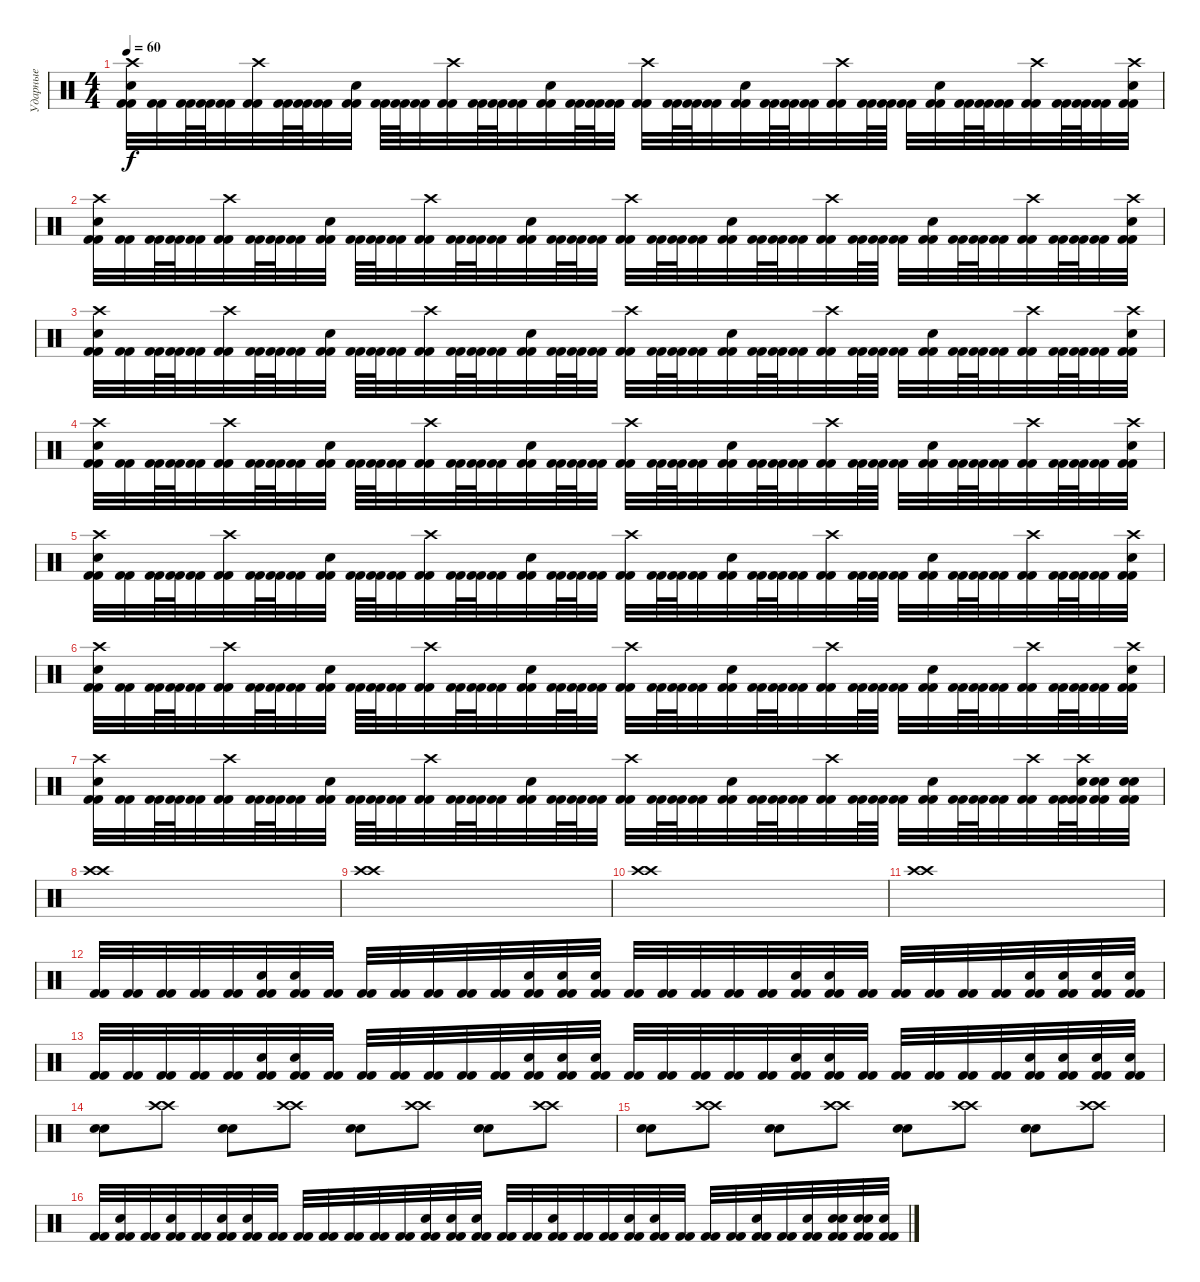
\track ("Ударные" "Ударные") {instrument percussion}
\staff {score}
\articulation defaults
\ts (4 4)
\tempo 60
\clef neutral
\ks c
("Kick (hit) 2" "Kick (hit) 2" "Electric Snare (hit)" "Crash high (hit)").32{dy f} ("Kick (hit) 2" "Kick (hit) 2").32 ("Kick (hit) 2" "Kick (hit) 2").64 ("Kick (hit) 2" "Kick (hit) 2").64 ("Kick (hit) 2" "Kick (hit) 2").32 ("Kick (hit) 2" "Kick (hit) 2" "Crash high (hit)").32 ("Kick (hit) 2" "Kick (hit) 2").64 ("Kick (hit) 2" "Kick (hit) 2").64 ("Kick (hit) 2" "Kick (hit) 2").32 ("Kick (hit) 2" "Kick (hit) 2" "Electric Snare (hit)").32 ("Kick (hit) 2" "Kick (hit) 2").64 ("Kick (hit) 2" "Kick (hit) 2").64 ("Kick (hit) 2" "Kick (hit) 2").32 ("Kick (hit) 2" "Kick (hit) 2" "Crash high (hit)").32 ("Kick (hit) 2" "Kick (hit) 2").64 ("Kick (hit) 2" "Kick (hit) 2").64 ("Kick (hit) 2" "Kick (hit) 2").32 ("Kick (hit) 2" "Kick (hit) 2" "Electric Snare (hit)").32 ("Kick (hit) 2" "Kick (hit) 2").64 ("Kick (hit) 2" "Kick (hit) 2").64 ("Kick (hit) 2" "Kick (hit) 2").32 ("Kick (hit) 2" "Kick (hit) 2" "Crash high (hit)").32 ("Kick (hit) 2" "Kick (hit) 2").64 ("Kick (hit) 2" "Kick (hit) 2").64 ("Kick (hit) 2" "Kick (hit) 2").32 ("Kick (hit) 2" "Kick (hit) 2" "Electric Snare (hit)").32 ("Kick (hit) 2" "Kick (hit) 2").64 ("Kick (hit) 2" "Kick (hit) 2").64 ("Kick (hit) 2" "Kick (hit) 2").32 ("Kick (hit) 2" "Kick (hit) 2" "Crash high (hit)").32 ("Kick (hit) 2" "Kick (hit) 2").64 ("Kick (hit) 2" "Kick (hit) 2").64 ("Kick (hit) 2" "Kick (hit) 2").32 ("Kick (hit) 2" "Kick (hit) 2" "Electric Snare (hit)").32 ("Kick (hit) 2" "Kick (hit) 2").64 ("Kick (hit) 2" "Kick (hit) 2").64 ("Kick (hit) 2" "Kick (hit) 2").32 ("Kick (hit) 2" "Kick (hit) 2" "Crash high (hit)").32 ("Kick (hit) 2" "Kick (hit) 2").64 ("Kick (hit) 2" "Kick (hit) 2").64 ("Kick (hit) 2" "Kick (hit) 2").32 ("Kick (hit) 2" "Kick (hit) 2" "Electric Snare (hit)" "Crash high (hit)").32 |
("Kick (hit) 2" "Kick (hit) 2" "Electric Snare (hit)" "Crash high (hit)").32 ("Kick (hit) 2" "Kick (hit) 2").32 ("Kick (hit) 2" "Kick (hit) 2").64 ("Kick (hit) 2" "Kick (hit) 2").64 ("Kick (hit) 2" "Kick (hit) 2").32 ("Kick (hit) 2" "Kick (hit) 2" "Crash high (hit)").32 ("Kick (hit) 2" "Kick (hit) 2").64 ("Kick (hit) 2" "Kick (hit) 2").64 ("Kick (hit) 2" "Kick (hit) 2").32 ("Kick (hit) 2" "Kick (hit) 2" "Electric Snare (hit)").32 ("Kick (hit) 2" "Kick (hit) 2").64 ("Kick (hit) 2" "Kick (hit) 2").64 ("Kick (hit) 2" "Kick (hit) 2").32 ("Kick (hit) 2" "Kick (hit) 2" "Crash high (hit)").32 ("Kick (hit) 2" "Kick (hit) 2").64 ("Kick (hit) 2" "Kick (hit) 2").64 ("Kick (hit) 2" "Kick (hit) 2").32 ("Kick (hit) 2" "Kick (hit) 2" "Electric Snare (hit)").32 ("Kick (hit) 2" "Kick (hit) 2").64 ("Kick (hit) 2" "Kick (hit) 2").64 ("Kick (hit) 2" "Kick (hit) 2").32 ("Kick (hit) 2" "Kick (hit) 2" "Crash high (hit)").32 ("Kick (hit) 2" "Kick (hit) 2").64 ("Kick (hit) 2" "Kick (hit) 2").64 ("Kick (hit) 2" "Kick (hit) 2").32 ("Kick (hit) 2" "Kick (hit) 2" "Electric Snare (hit)").32 ("Kick (hit) 2" "Kick (hit) 2").64 ("Kick (hit) 2" "Kick (hit) 2").64 ("Kick (hit) 2" "Kick (hit) 2").32 ("Kick (hit) 2" "Kick (hit) 2" "Crash high (hit)").32 ("Kick (hit) 2" "Kick (hit) 2").64 ("Kick (hit) 2" "Kick (hit) 2").64 ("Kick (hit) 2" "Kick (hit) 2").32 ("Kick (hit) 2" "Kick (hit) 2" "Electric Snare (hit)").32 ("Kick (hit) 2" "Kick (hit) 2").64 ("Kick (hit) 2" "Kick (hit) 2").64 ("Kick (hit) 2" "Kick (hit) 2").32 ("Kick (hit) 2" "Kick (hit) 2" "Crash high (hit)").32 ("Kick (hit) 2" "Kick (hit) 2").64 ("Kick (hit) 2" "Kick (hit) 2").64 ("Kick (hit) 2" "Kick (hit) 2").32 ("Kick (hit) 2" "Kick (hit) 2" "Electric Snare (hit)" "Crash high (hit)").32 |
("Kick (hit) 2" "Kick (hit) 2" "Electric Snare (hit)" "Crash high (hit)").32 ("Kick (hit) 2" "Kick (hit) 2").32 ("Kick (hit) 2" "Kick (hit) 2").64 ("Kick (hit) 2" "Kick (hit) 2").64 ("Kick (hit) 2" "Kick (hit) 2").32 ("Kick (hit) 2" "Kick (hit) 2" "Crash high (hit)").32 ("Kick (hit) 2" "Kick (hit) 2").64 ("Kick (hit) 2" "Kick (hit) 2").64 ("Kick (hit) 2" "Kick (hit) 2").32 ("Kick (hit) 2" "Kick (hit) 2" "Electric Snare (hit)").32 ("Kick (hit) 2" "Kick (hit) 2").64 ("Kick (hit) 2" "Kick (hit) 2").64 ("Kick (hit) 2" "Kick (hit) 2").32 ("Kick (hit) 2" "Kick (hit) 2" "Crash high (hit)").32 ("Kick (hit) 2" "Kick (hit) 2").64 ("Kick (hit) 2" "Kick (hit) 2").64 ("Kick (hit) 2" "Kick (hit) 2").32 ("Kick (hit) 2" "Kick (hit) 2" "Electric Snare (hit)").32 ("Kick (hit) 2" "Kick (hit) 2").64 ("Kick (hit) 2" "Kick (hit) 2").64 ("Kick (hit) 2" "Kick (hit) 2").32 ("Kick (hit) 2" "Kick (hit) 2" "Crash high (hit)").32 ("Kick (hit) 2" "Kick (hit) 2").64 ("Kick (hit) 2" "Kick (hit) 2").64 ("Kick (hit) 2" "Kick (hit) 2").32 ("Kick (hit) 2" "Kick (hit) 2" "Electric Snare (hit)").32 ("Kick (hit) 2" "Kick (hit) 2").64 ("Kick (hit) 2" "Kick (hit) 2").64 ("Kick (hit) 2" "Kick (hit) 2").32 ("Kick (hit) 2" "Kick (hit) 2" "Crash high (hit)").32 ("Kick (hit) 2" "Kick (hit) 2").64 ("Kick (hit) 2" "Kick (hit) 2").64 ("Kick (hit) 2" "Kick (hit) 2").32 ("Kick (hit) 2" "Kick (hit) 2" "Electric Snare (hit)").32 ("Kick (hit) 2" "Kick (hit) 2").64 ("Kick (hit) 2" "Kick (hit) 2").64 ("Kick (hit) 2" "Kick (hit) 2").32 ("Kick (hit) 2" "Kick (hit) 2" "Crash high (hit)").32 ("Kick (hit) 2" "Kick (hit) 2").64 ("Kick (hit) 2" "Kick (hit) 2").64 ("Kick (hit) 2" "Kick (hit) 2").32 ("Kick (hit) 2" "Kick (hit) 2" "Electric Snare (hit)" "Crash high (hit)").32 |
("Kick (hit) 2" "Kick (hit) 2" "Electric Snare (hit)" "Crash high (hit)").32 ("Kick (hit) 2" "Kick (hit) 2").32 ("Kick (hit) 2" "Kick (hit) 2").64 ("Kick (hit) 2" "Kick (hit) 2").64 ("Kick (hit) 2" "Kick (hit) 2").32 ("Kick (hit) 2" "Kick (hit) 2" "Crash high (hit)").32 ("Kick (hit) 2" "Kick (hit) 2").64 ("Kick (hit) 2" "Kick (hit) 2").64 ("Kick (hit) 2" "Kick (hit) 2").32 ("Kick (hit) 2" "Kick (hit) 2" "Electric Snare (hit)").32 ("Kick (hit) 2" "Kick (hit) 2").64 ("Kick (hit) 2" "Kick (hit) 2").64 ("Kick (hit) 2" "Kick (hit) 2").32 ("Kick (hit) 2" "Kick (hit) 2" "Crash high (hit)").32 ("Kick (hit) 2" "Kick (hit) 2").64 ("Kick (hit) 2" "Kick (hit) 2").64 ("Kick (hit) 2" "Kick (hit) 2").32 ("Kick (hit) 2" "Kick (hit) 2" "Electric Snare (hit)").32 ("Kick (hit) 2" "Kick (hit) 2").64 ("Kick (hit) 2" "Kick (hit) 2").64 ("Kick (hit) 2" "Kick (hit) 2").32 ("Kick (hit) 2" "Kick (hit) 2" "Crash high (hit)").32 ("Kick (hit) 2" "Kick (hit) 2").64 ("Kick (hit) 2" "Kick (hit) 2").64 ("Kick (hit) 2" "Kick (hit) 2").32 ("Kick (hit) 2" "Kick (hit) 2" "Electric Snare (hit)").32 ("Kick (hit) 2" "Kick (hit) 2").64 ("Kick (hit) 2" "Kick (hit) 2").64 ("Kick (hit) 2" "Kick (hit) 2").32 ("Kick (hit) 2" "Kick (hit) 2" "Crash high (hit)").32 ("Kick (hit) 2" "Kick (hit) 2").64 ("Kick (hit) 2" "Kick (hit) 2").64 ("Kick (hit) 2" "Kick (hit) 2").32 ("Kick (hit) 2" "Kick (hit) 2" "Electric Snare (hit)").32 ("Kick (hit) 2" "Kick (hit) 2").64 ("Kick (hit) 2" "Kick (hit) 2").64 ("Kick (hit) 2" "Kick (hit) 2").32 ("Kick (hit) 2" "Kick (hit) 2" "Crash high (hit)").32 ("Kick (hit) 2" "Kick (hit) 2").64 ("Kick (hit) 2" "Kick (hit) 2").64 ("Kick (hit) 2" "Kick (hit) 2").32 ("Kick (hit) 2" "Kick (hit) 2" "Electric Snare (hit)" "Crash high (hit)").32 |
("Kick (hit) 2" "Kick (hit) 2" "Electric Snare (hit)" "Crash high (hit)").32 ("Kick (hit) 2" "Kick (hit) 2").32 ("Kick (hit) 2" "Kick (hit) 2").64 ("Kick (hit) 2" "Kick (hit) 2").64 ("Kick (hit) 2" "Kick (hit) 2").32 ("Kick (hit) 2" "Kick (hit) 2" "Crash high (hit)").32 ("Kick (hit) 2" "Kick (hit) 2").64 ("Kick (hit) 2" "Kick (hit) 2").64 ("Kick (hit) 2" "Kick (hit) 2").32 ("Kick (hit) 2" "Kick (hit) 2" "Electric Snare (hit)").32 ("Kick (hit) 2" "Kick (hit) 2").64 ("Kick (hit) 2" "Kick (hit) 2").64 ("Kick (hit) 2" "Kick (hit) 2").32 ("Kick (hit) 2" "Kick (hit) 2" "Crash high (hit)").32 ("Kick (hit) 2" "Kick (hit) 2").64 ("Kick (hit) 2" "Kick (hit) 2").64 ("Kick (hit) 2" "Kick (hit) 2").32 ("Kick (hit) 2" "Kick (hit) 2" "Electric Snare (hit)").32 ("Kick (hit) 2" "Kick (hit) 2").64 ("Kick (hit) 2" "Kick (hit) 2").64 ("Kick (hit) 2" "Kick (hit) 2").32 ("Kick (hit) 2" "Kick (hit) 2" "Crash high (hit)").32 ("Kick (hit) 2" "Kick (hit) 2").64 ("Kick (hit) 2" "Kick (hit) 2").64 ("Kick (hit) 2" "Kick (hit) 2").32 ("Kick (hit) 2" "Kick (hit) 2" "Electric Snare (hit)").32 ("Kick (hit) 2" "Kick (hit) 2").64 ("Kick (hit) 2" "Kick (hit) 2").64 ("Kick (hit) 2" "Kick (hit) 2").32 ("Kick (hit) 2" "Kick (hit) 2" "Crash high (hit)").32 ("Kick (hit) 2" "Kick (hit) 2").64 ("Kick (hit) 2" "Kick (hit) 2").64 ("Kick (hit) 2" "Kick (hit) 2").32 ("Kick (hit) 2" "Kick (hit) 2" "Electric Snare (hit)").32 ("Kick (hit) 2" "Kick (hit) 2").64 ("Kick (hit) 2" "Kick (hit) 2").64 ("Kick (hit) 2" "Kick (hit) 2").32 ("Kick (hit) 2" "Kick (hit) 2" "Crash high (hit)").32 ("Kick (hit) 2" "Kick (hit) 2").64 ("Kick (hit) 2" "Kick (hit) 2").64 ("Kick (hit) 2" "Kick (hit) 2").32 ("Kick (hit) 2" "Kick (hit) 2" "Electric Snare (hit)" "Crash high (hit)").32 |
("Kick (hit) 2" "Kick (hit) 2" "Electric Snare (hit)" "Crash high (hit)").32 ("Kick (hit) 2" "Kick (hit) 2").32 ("Kick (hit) 2" "Kick (hit) 2").64 ("Kick (hit) 2" "Kick (hit) 2").64 ("Kick (hit) 2" "Kick (hit) 2").32 ("Kick (hit) 2" "Kick (hit) 2" "Crash high (hit)").32 ("Kick (hit) 2" "Kick (hit) 2").64 ("Kick (hit) 2" "Kick (hit) 2").64 ("Kick (hit) 2" "Kick (hit) 2").32 ("Kick (hit) 2" "Kick (hit) 2" "Electric Snare (hit)").32 ("Kick (hit) 2" "Kick (hit) 2").64 ("Kick (hit) 2" "Kick (hit) 2").64 ("Kick (hit) 2" "Kick (hit) 2").32 ("Kick (hit) 2" "Kick (hit) 2" "Crash high (hit)").32 ("Kick (hit) 2" "Kick (hit) 2").64 ("Kick (hit) 2" "Kick (hit) 2").64 ("Kick (hit) 2" "Kick (hit) 2").32 ("Kick (hit) 2" "Kick (hit) 2" "Electric Snare (hit)").32 ("Kick (hit) 2" "Kick (hit) 2").64 ("Kick (hit) 2" "Kick (hit) 2").64 ("Kick (hit) 2" "Kick (hit) 2").32 ("Kick (hit) 2" "Kick (hit) 2" "Crash high (hit)").32 ("Kick (hit) 2" "Kick (hit) 2").64 ("Kick (hit) 2" "Kick (hit) 2").64 ("Kick (hit) 2" "Kick (hit) 2").32 ("Kick (hit) 2" "Kick (hit) 2" "Electric Snare (hit)").32 ("Kick (hit) 2" "Kick (hit) 2").64 ("Kick (hit) 2" "Kick (hit) 2").64 ("Kick (hit) 2" "Kick (hit) 2").32 ("Kick (hit) 2" "Kick (hit) 2" "Crash high (hit)").32 ("Kick (hit) 2" "Kick (hit) 2").64 ("Kick (hit) 2" "Kick (hit) 2").64 ("Kick (hit) 2" "Kick (hit) 2").32 ("Kick (hit) 2" "Kick (hit) 2" "Electric Snare (hit)").32 ("Kick (hit) 2" "Kick (hit) 2").64 ("Kick (hit) 2" "Kick (hit) 2").64 ("Kick (hit) 2" "Kick (hit) 2").32 ("Kick (hit) 2" "Kick (hit) 2" "Crash high (hit)").32 ("Kick (hit) 2" "Kick (hit) 2").64 ("Kick (hit) 2" "Kick (hit) 2").64 ("Kick (hit) 2" "Kick (hit) 2").32 ("Kick (hit) 2" "Kick (hit) 2" "Electric Snare (hit)" "Crash high (hit)").32 |
("Kick (hit) 2" "Kick (hit) 2" "Electric Snare (hit)" "Crash high (hit)").32 ("Kick (hit) 2" "Kick (hit) 2").32 ("Kick (hit) 2" "Kick (hit) 2").64 ("Kick (hit) 2" "Kick (hit) 2").64 ("Kick (hit) 2" "Kick (hit) 2").32 ("Kick (hit) 2" "Kick (hit) 2" "Crash high (hit)").32 ("Kick (hit) 2" "Kick (hit) 2").64 ("Kick (hit) 2" "Kick (hit) 2").64 ("Kick (hit) 2" "Kick (hit) 2").32 ("Kick (hit) 2" "Kick (hit) 2" "Electric Snare (hit)").32 ("Kick (hit) 2" "Kick (hit) 2").64 ("Kick (hit) 2" "Kick (hit) 2").64 ("Kick (hit) 2" "Kick (hit) 2").32 ("Kick (hit) 2" "Kick (hit) 2" "Crash high (hit)").32 ("Kick (hit) 2" "Kick (hit) 2").64 ("Kick (hit) 2" "Kick (hit) 2").64 ("Kick (hit) 2" "Kick (hit) 2").32 ("Kick (hit) 2" "Kick (hit) 2" "Electric Snare (hit)").32 ("Kick (hit) 2" "Kick (hit) 2").64 ("Kick (hit) 2" "Kick (hit) 2").64 ("Kick (hit) 2" "Kick (hit) 2").32 ("Kick (hit) 2" "Kick (hit) 2" "Crash high (hit)").32 ("Kick (hit) 2" "Kick (hit) 2").64 ("Kick (hit) 2" "Kick (hit) 2").64 ("Kick (hit) 2" "Kick (hit) 2").32 ("Kick (hit) 2" "Kick (hit) 2" "Electric Snare (hit)").32 ("Kick (hit) 2" "Kick (hit) 2").64 ("Kick (hit) 2" "Kick (hit) 2").64 ("Kick (hit) 2" "Kick (hit) 2").32 ("Kick (hit) 2" "Kick (hit) 2" "Crash high (hit)").32 ("Kick (hit) 2" "Kick (hit) 2").64 ("Kick (hit) 2" "Kick (hit) 2").64 ("Kick (hit) 2" "Kick (hit) 2").32 ("Kick (hit) 2" "Kick (hit) 2" "Electric Snare (hit)").32 ("Kick (hit) 2" "Kick (hit) 2").64 ("Kick (hit) 2" "Kick (hit) 2").64 ("Kick (hit) 2" "Kick (hit) 2").32 ("Kick (hit) 2" "Kick (hit) 2" "Crash high (hit)").32 ("Kick (hit) 2" "Kick (hit) 2").64 ("Kick (hit) 2" "Kick (hit) 2" "Electric Snare (hit)" "Crash high (hit)").64 ("Kick (hit) 2" "Kick (hit) 2" "Electric Snare (hit)" "Electric Snare (hit)").32 ("Kick (hit) 2" "Kick (hit) 2" "Electric Snare (hit)" "Electric Snare (hit)").32 |
("Crash high (hit)" "Crash high (hit)").1 |
("Crash high (hit)" "Crash high (hit)").1 |
("Crash high (hit)" "Crash high (hit)").1 |
("Crash high (hit)" "Crash high (hit)").1 |
("Kick (hit) 2" "Kick (hit) 2").32 ("Kick (hit) 2" "Kick (hit) 2").32 ("Kick (hit) 2" "Kick (hit) 2").32 ("Kick (hit) 2" "Kick (hit) 2").32 ("Kick (hit) 2" "Kick (hit) 2").32 ("Kick (hit) 2" "Kick (hit) 2" "Electric Snare (hit)").32 ("Kick (hit) 2" "Kick (hit) 2" "Electric Snare (hit)").32 ("Kick (hit) 2" "Kick (hit) 2").32 ("Kick (hit) 2" "Kick (hit) 2").32 ("Kick (hit) 2" "Kick (hit) 2").32 ("Kick (hit) 2" "Kick (hit) 2").32 ("Kick (hit) 2" "Kick (hit) 2").32 ("Kick (hit) 2" "Kick (hit) 2").32 ("Kick (hit) 2" "Kick (hit) 2" "Electric Snare (hit)").32 ("Kick (hit) 2" "Kick (hit) 2" "Electric Snare (hit)").32 ("Kick (hit) 2" "Kick (hit) 2" "Electric Snare (hit)").32 ("Kick (hit) 2" "Kick (hit) 2").32 ("Kick (hit) 2" "Kick (hit) 2").32 ("Kick (hit) 2" "Kick (hit) 2").32 ("Kick (hit) 2" "Kick (hit) 2").32 ("Kick (hit) 2" "Kick (hit) 2").32 ("Kick (hit) 2" "Kick (hit) 2" "Electric Snare (hit)").32 ("Kick (hit) 2" "Kick (hit) 2" "Electric Snare (hit)").32 ("Kick (hit) 2" "Kick (hit) 2").32 ("Kick (hit) 2" "Kick (hit) 2").32 ("Kick (hit) 2" "Kick (hit) 2").32 ("Kick (hit) 2" "Kick (hit) 2").32 ("Kick (hit) 2" "Kick (hit) 2").32 ("Kick (hit) 2" "Kick (hit) 2" "Electric Snare (hit)").32 ("Kick (hit) 2" "Kick (hit) 2" "Electric Snare (hit)").32 ("Kick (hit) 2" "Kick (hit) 2" "Electric Snare (hit)").32 ("Kick (hit) 2" "Kick (hit) 2" "Electric Snare (hit)").32 |
("Kick (hit) 2" "Kick (hit) 2").32 ("Kick (hit) 2" "Kick (hit) 2").32 ("Kick (hit) 2" "Kick (hit) 2").32 ("Kick (hit) 2" "Kick (hit) 2").32 ("Kick (hit) 2" "Kick (hit) 2").32 ("Kick (hit) 2" "Kick (hit) 2" "Electric Snare (hit)").32 ("Kick (hit) 2" "Kick (hit) 2" "Electric Snare (hit)").32 ("Kick (hit) 2" "Kick (hit) 2").32 ("Kick (hit) 2" "Kick (hit) 2").32 ("Kick (hit) 2" "Kick (hit) 2").32 ("Kick (hit) 2" "Kick (hit) 2").32 ("Kick (hit) 2" "Kick (hit) 2").32 ("Kick (hit) 2" "Kick (hit) 2").32 ("Kick (hit) 2" "Kick (hit) 2" "Electric Snare (hit)").32 ("Kick (hit) 2" "Kick (hit) 2" "Electric Snare (hit)").32 ("Kick (hit) 2" "Kick (hit) 2" "Electric Snare (hit)").32 ("Kick (hit) 2" "Kick (hit) 2").32 ("Kick (hit) 2" "Kick (hit) 2").32 ("Kick (hit) 2" "Kick (hit) 2").32 ("Kick (hit) 2" "Kick (hit) 2").32 ("Kick (hit) 2" "Kick (hit) 2").32 ("Kick (hit) 2" "Kick (hit) 2" "Electric Snare (hit)").32 ("Kick (hit) 2" "Kick (hit) 2" "Electric Snare (hit)").32 ("Kick (hit) 2" "Kick (hit) 2").32 ("Kick (hit) 2" "Kick (hit) 2").32 ("Kick (hit) 2" "Kick (hit) 2").32 ("Kick (hit) 2" "Kick (hit) 2").32 ("Kick (hit) 2" "Kick (hit) 2").32 ("Kick (hit) 2" "Kick (hit) 2" "Electric Snare (hit)").32 ("Kick (hit) 2" "Kick (hit) 2" "Electric Snare (hit)").32 ("Kick (hit) 2" "Kick (hit) 2" "Electric Snare (hit)").32 ("Kick (hit) 2" "Kick (hit) 2" "Electric Snare (hit)").32 |
("Electric Snare (hit)" "Electric Snare (hit)").8 ("Crash high (hit)" "Crash high (hit)").8 ("Electric Snare (hit)" "Electric Snare (hit)").8 ("Crash high (hit)" "Crash high (hit)").8 ("Electric Snare (hit)" "Electric Snare (hit)").8 ("Crash high (hit)" "Crash high (hit)").8 ("Electric Snare (hit)" "Electric Snare (hit)").8 ("Crash high (hit)" "Crash high (hit)").8 |
("Electric Snare (hit)" "Electric Snare (hit)").8 ("Crash high (hit)" "Crash high (hit)").8 ("Electric Snare (hit)" "Electric Snare (hit)").8 ("Crash high (hit)" "Crash high (hit)").8 ("Electric Snare (hit)" "Electric Snare (hit)").8 ("Crash high (hit)" "Crash high (hit)").8 ("Electric Snare (hit)" "Electric Snare (hit)").8 ("Crash high (hit)" "Crash high (hit)").8 |
("Kick (hit) 2" "Kick (hit) 2").32 ("Kick (hit) 2" "Kick (hit) 2" "Electric Snare (hit)").32 ("Kick (hit) 2" "Kick (hit) 2").32 ("Kick (hit) 2" "Kick (hit) 2" "Electric Snare (hit)").32 ("Kick (hit) 2" "Kick (hit) 2").32 ("Kick (hit) 2" "Kick (hit) 2" "Electric Snare (hit)").32 ("Kick (hit) 2" "Kick (hit) 2" "Electric Snare (hit)").32 ("Kick (hit) 2" "Kick (hit) 2").32 ("Kick (hit) 2" "Kick (hit) 2").32 ("Kick (hit) 2" "Kick (hit) 2").32 ("Kick (hit) 2" "Kick (hit) 2").32 ("Kick (hit) 2" "Kick (hit) 2").32 ("Kick (hit) 2" "Kick (hit) 2").32 ("Kick (hit) 2" "Kick (hit) 2" "Electric Snare (hit)").32 ("Kick (hit) 2" "Kick (hit) 2" "Electric Snare (hit)").32 ("Kick (hit) 2" "Kick (hit) 2" "Electric Snare (hit)").32 ("Kick (hit) 2" "Kick (hit) 2").32 ("Kick (hit) 2" "Kick (hit) 2").32 ("Kick (hit) 2" "Kick (hit) 2" "Electric Snare (hit)").32 ("Kick (hit) 2" "Kick (hit) 2").32 ("Kick (hit) 2" "Kick (hit) 2").32 ("Kick (hit) 2" "Kick (hit) 2" "Electric Snare (hit)").32 ("Kick (hit) 2" "Kick (hit) 2" "Electric Snare (hit)").32 ("Kick (hit) 2" "Kick (hit) 2").32 ("Kick (hit) 2" "Kick (hit) 2").32 ("Kick (hit) 2" "Kick (hit) 2").32 ("Kick (hit) 2" "Kick (hit) 2" "Electric Snare (hit)").32 ("Kick (hit) 2" "Kick (hit) 2").32 ("Kick (hit) 2" "Kick (hit) 2" "Electric Snare (hit)").32 ("Kick (hit) 2" "Kick (hit) 2" "Electric Snare (hit)" "Electric Snare (hit)").32 ("Kick (hit) 2" "Kick (hit) 2" "Electric Snare (hit)" "Electric Snare (hit)").32 ("Kick (hit) 2" "Kick (hit) 2" "Electric Snare (hit)").32
